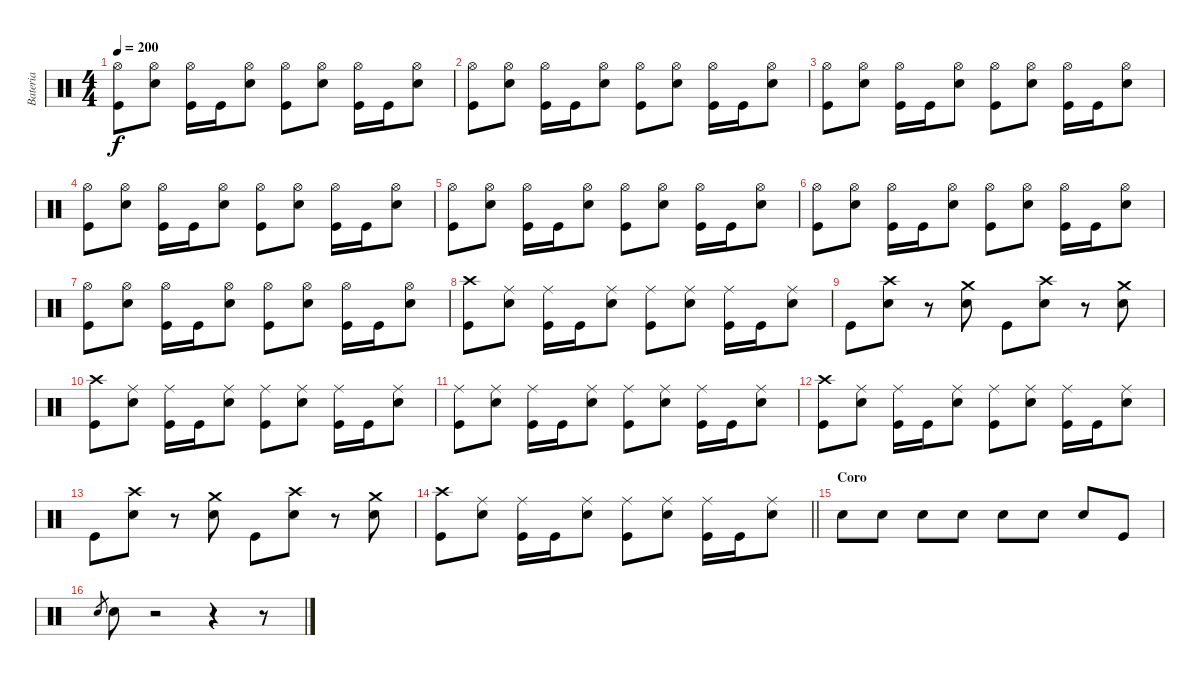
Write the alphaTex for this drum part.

\track ("Bateria" "Bateria") {instrument percussion}
\staff {score}
\articulation defaults
\ts (4 4)
\tempo 200
\clef neutral
\ks c
("Hi-Hat (open)" "Kick (hit)").8{dy f} ("Hi-Hat (open)" "Snare (hit) 2").8 ("Hi-Hat (open)" "Kick (hit)").16 "Kick (hit)".16 ("Hi-Hat (open)" "Snare (hit) 2").8 ("Hi-Hat (open)" "Kick (hit)").8 ("Hi-Hat (open)" "Snare (hit) 2").8 ("Hi-Hat (open)" "Kick (hit)").16 "Kick (hit)".16 ("Hi-Hat (open)" "Snare (hit) 2").8 |
("Hi-Hat (open)" "Kick (hit)").8 ("Hi-Hat (open)" "Snare (hit) 2").8 ("Hi-Hat (open)" "Kick (hit)").16 "Kick (hit)".16 ("Hi-Hat (open)" "Snare (hit) 2").8 ("Hi-Hat (open)" "Kick (hit)").8 ("Hi-Hat (open)" "Snare (hit) 2").8 ("Hi-Hat (open)" "Kick (hit)").16 "Kick (hit)".16 ("Hi-Hat (open)" "Snare (hit) 2").8 |
("Hi-Hat (open)" "Kick (hit)").8 ("Hi-Hat (open)" "Snare (hit) 2").8 ("Hi-Hat (open)" "Kick (hit)").16 "Kick (hit)".16 ("Hi-Hat (open)" "Snare (hit) 2").8 ("Hi-Hat (open)" "Kick (hit)").8 ("Hi-Hat (open)" "Snare (hit) 2").8 ("Hi-Hat (open)" "Kick (hit)").16 "Kick (hit)".16 ("Hi-Hat (open)" "Snare (hit) 2").8 |
("Hi-Hat (open)" "Kick (hit)").8 ("Hi-Hat (open)" "Snare (hit) 2").8 ("Hi-Hat (open)" "Kick (hit)").16 "Kick (hit)".16 ("Hi-Hat (open)" "Snare (hit) 2").8 ("Hi-Hat (open)" "Kick (hit)").8 ("Hi-Hat (open)" "Snare (hit) 2").8 ("Hi-Hat (open)" "Kick (hit)").16 "Kick (hit)".16 ("Hi-Hat (open)" "Snare (hit) 2").8 |
("Hi-Hat (open)" "Kick (hit)").8 ("Hi-Hat (open)" "Snare (hit) 2").8 ("Hi-Hat (open)" "Kick (hit)").16 "Kick (hit)".16 ("Hi-Hat (open)" "Snare (hit) 2").8 ("Hi-Hat (open)" "Kick (hit)").8 ("Hi-Hat (open)" "Snare (hit) 2").8 ("Hi-Hat (open)" "Kick (hit)").16 "Kick (hit)".16 ("Hi-Hat (open)" "Snare (hit) 2").8 |
("Hi-Hat (open)" "Kick (hit)").8 ("Hi-Hat (open)" "Snare (hit) 2").8 ("Hi-Hat (open)" "Kick (hit)").16 "Kick (hit)".16 ("Hi-Hat (open)" "Snare (hit) 2").8 ("Hi-Hat (open)" "Kick (hit)").8 ("Hi-Hat (open)" "Snare (hit) 2").8 ("Hi-Hat (open)" "Kick (hit)").16 "Kick (hit)".16 ("Hi-Hat (open)" "Snare (hit) 2").8 |
("Hi-Hat (open)" "Kick (hit)").8 ("Hi-Hat (open)" "Snare (hit) 2").8 ("Hi-Hat (open)" "Kick (hit)").16 "Kick (hit)".16 ("Hi-Hat (open)" "Snare (hit) 2").8 ("Hi-Hat (open)" "Kick (hit)").8 ("Hi-Hat (open)" "Snare (hit) 2").8 ("Hi-Hat (open)" "Kick (hit)").16 "Kick (hit)".16 ("Hi-Hat (open)" "Snare (hit) 2").8 |
("Crash high (hit)" "Kick (hit)").8 ("Ride (middle)" "Snare (hit) 2").8 ("Ride (middle)" "Kick (hit)").16 "Kick (hit)".16 ("Ride (middle)" "Snare (hit) 2").8 ("Ride (middle)" "Kick (hit)").8 ("Ride (middle)" "Snare (hit) 2").8 ("Ride (middle)" "Kick (hit)").16 "Kick (hit)".16 ("Ride (middle)" "Snare (hit) 2").8 |
"Kick (hit)".8 ("Crash high (hit)" "Snare (hit) 2").8 r.8 ("Crash medium (hit)" "Snare (hit) 2").8 "Kick (hit)".8 ("Crash high (hit)" "Snare (hit) 2").8 r.8 ("Crash medium (hit)" "Snare (hit) 2").8 |
("Crash high (hit)" "Kick (hit)").8 ("Ride (middle)" "Snare (hit) 2").8 ("Ride (middle)" "Kick (hit)").16 "Kick (hit)".16 ("Ride (middle)" "Snare (hit) 2").8 ("Ride (middle)" "Kick (hit)").8 ("Ride (middle)" "Snare (hit) 2").8 ("Ride (middle)" "Kick (hit)").16 "Kick (hit)".16 ("Ride (middle)" "Snare (hit) 2").8 |
("Ride (middle)" "Kick (hit)").8 ("Ride (middle)" "Snare (hit) 2").8 ("Ride (middle)" "Kick (hit)").16 "Kick (hit)".16 ("Ride (middle)" "Snare (hit) 2").8 ("Ride (middle)" "Kick (hit)").8 ("Ride (middle)" "Snare (hit) 2").8 ("Ride (middle)" "Kick (hit)").16 "Kick (hit)".16 ("Ride (middle)" "Snare (hit) 2").8 |
("Crash high (hit)" "Kick (hit)").8 ("Ride (middle)" "Snare (hit) 2").8 ("Ride (middle)" "Kick (hit)").16 "Kick (hit)".16 ("Ride (middle)" "Snare (hit) 2").8 ("Ride (middle)" "Kick (hit)").8 ("Ride (middle)" "Snare (hit) 2").8 ("Ride (middle)" "Kick (hit)").16 "Kick (hit)".16 ("Ride (middle)" "Snare (hit) 2").8 |
"Kick (hit)".8 ("Crash high (hit)" "Snare (hit) 2").8 r.8 ("Crash medium (hit)" "Snare (hit) 2").8 "Kick (hit)".8 ("Crash high (hit)" "Snare (hit) 2").8 r.8 ("Crash medium (hit)" "Snare (hit) 2").8 |
\barLineRight lightlight
("Crash high (hit)" "Kick (hit)").8 ("Ride (middle)" "Snare (hit) 2").8 ("Ride (middle)" "Kick (hit)").16 "Kick (hit)".16 ("Ride (middle)" "Snare (hit) 2").8 ("Ride (middle)" "Kick (hit)").8 ("Ride (middle)" "Snare (hit) 2").8 ("Ride (middle)" "Kick (hit)").16 "Kick (hit)".16 ("Ride (middle)" "Snare (hit) 2").8 |
\section ("" "Coro")
"Snare (hit) 2".8 "Snare (hit) 2".8 "Snare (hit) 2".8 "Snare (hit) 2".8 "Snare (hit) 2".8 "Snare (hit) 2".8 "Snare (hit) 2".8 "Kick (hit)".8 |
"Snare (hit) 2".8{gr} "Snare (hit) 2".8 r.2 r.4 r.8
